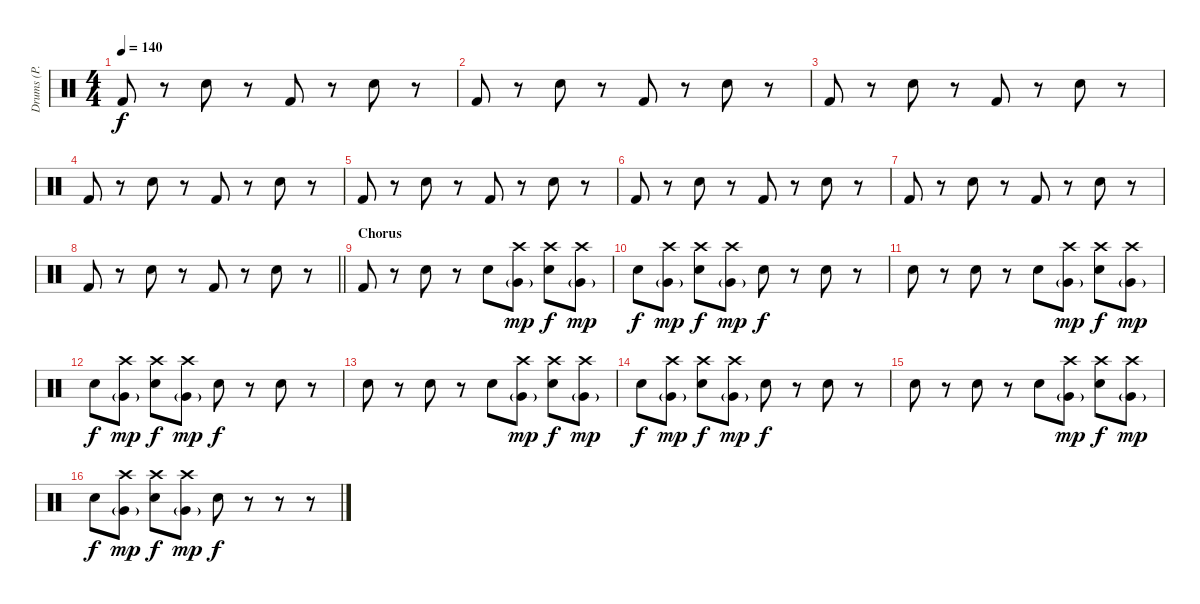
\track ("Drums (P. Rudd)" "Drums (P. ") {instrument percussion}
\staff {score}
\articulation defaults
\ts (4 4)
\tempo 140
\clef neutral
\ks c "Kick (hit) 2".8{dy f}
r.8 "Snare (hit) 2".8 r.8 "Kick (hit) 2".8 r.8 "Snare (hit) 2".8 r.8 |
"Kick (hit) 2".8 r.8 "Snare (hit) 2".8 r.8 "Kick (hit) 2".8 r.8 "Snare (hit) 2".8 r.8 |
"Kick (hit) 2".8 r.8 "Snare (hit) 2".8 r.8 "Kick (hit) 2".8 r.8 "Snare (hit) 2".8 r.8 |
"Kick (hit) 2".8 r.8 "Snare (hit) 2".8 r.8 "Kick (hit) 2".8 r.8 "Snare (hit) 2".8 r.8 |
"Kick (hit) 2".8 r.8 "Snare (hit) 2".8 r.8 "Kick (hit) 2".8 r.8 "Snare (hit) 2".8 r.8 |
"Kick (hit) 2".8 r.8 "Snare (hit) 2".8 r.8 "Kick (hit) 2".8 r.8 "Snare (hit) 2".8 r.8 |
"Kick (hit) 2".8 r.8 "Snare (hit) 2".8 r.8 "Kick (hit) 2".8 r.8 "Snare (hit) 2".8 r.8 |
\barLineRight lightlight "Kick (hit) 2".8
r.8 "Snare (hit) 2".8 r.8 "Kick (hit) 2".8 r.8 "Snare (hit) 2".8 r.8 |
\section ("" "Chorus")
"Kick (hit) 2".8 r.8 "Snare (hit) 2".8 r.8 "Electric Snare (hit)".8 ("Crash high (hit)" "Very Low Tom (hit)"{g}).8{dy mp} ("Crash high (hit)" "Electric Snare (hit)").8{dy f} ("Crash high (hit)" "Very Low Tom (hit)"{g}).8{dy mp} |
"Electric Snare (hit)".8{dy f} ("Crash high (hit)" "Very Low Tom (hit)"{g}).8{dy mp} ("Crash high (hit)" "Electric Snare (hit)").8{dy f} ("Crash high (hit)" "Very Low Tom (hit)"{g}).8{dy mp} "Electric Snare (hit)".8{dy f} r.8 "Electric Snare (hit)".8 r.8 |
"Electric Snare (hit)".8 r.8 "Electric Snare (hit)".8 r.8 "Electric Snare (hit)".8 ("Crash high (hit)" "Very Low Tom (hit)"{g}).8{dy mp} ("Crash high (hit)" "Electric Snare (hit)").8{dy f} ("Crash high (hit)" "Very Low Tom (hit)"{g}).8{dy mp} |
"Electric Snare (hit)".8{dy f} ("Crash high (hit)" "Very Low Tom (hit)"{g}).8{dy mp} ("Crash high (hit)" "Electric Snare (hit)").8{dy f} ("Crash high (hit)" "Very Low Tom (hit)"{g}).8{dy mp} "Electric Snare (hit)".8{dy f} r.8 "Electric Snare (hit)".8 r.8 |
"Electric Snare (hit)".8 r.8 "Electric Snare (hit)".8 r.8 "Electric Snare (hit)".8 ("Crash high (hit)" "Very Low Tom (hit)"{g}).8{dy mp} ("Crash high (hit)" "Electric Snare (hit)").8{dy f} ("Crash high (hit)" "Very Low Tom (hit)"{g}).8{dy mp} |
"Electric Snare (hit)".8{dy f} ("Crash high (hit)" "Very Low Tom (hit)"{g}).8{dy mp} ("Crash high (hit)" "Electric Snare (hit)").8{dy f} ("Crash high (hit)" "Very Low Tom (hit)"{g}).8{dy mp} "Electric Snare (hit)".8{dy f} r.8 "Electric Snare (hit)".8 r.8 |
"Electric Snare (hit)".8 r.8 "Electric Snare (hit)".8 r.8 "Electric Snare (hit)".8 ("Crash high (hit)" "Very Low Tom (hit)"{g}).8{dy mp} ("Crash high (hit)" "Electric Snare (hit)").8{dy f} ("Crash high (hit)" "Very Low Tom (hit)"{g}).8{dy mp} |
"Electric Snare (hit)".8{dy f} ("Crash high (hit)" "Very Low Tom (hit)"{g}).8{dy mp} ("Crash high (hit)" "Electric Snare (hit)").8{dy f} ("Crash high (hit)" "Very Low Tom (hit)"{g}).8{dy mp} "Electric Snare (hit)".8{dy f} r.8 r.8 r.8
